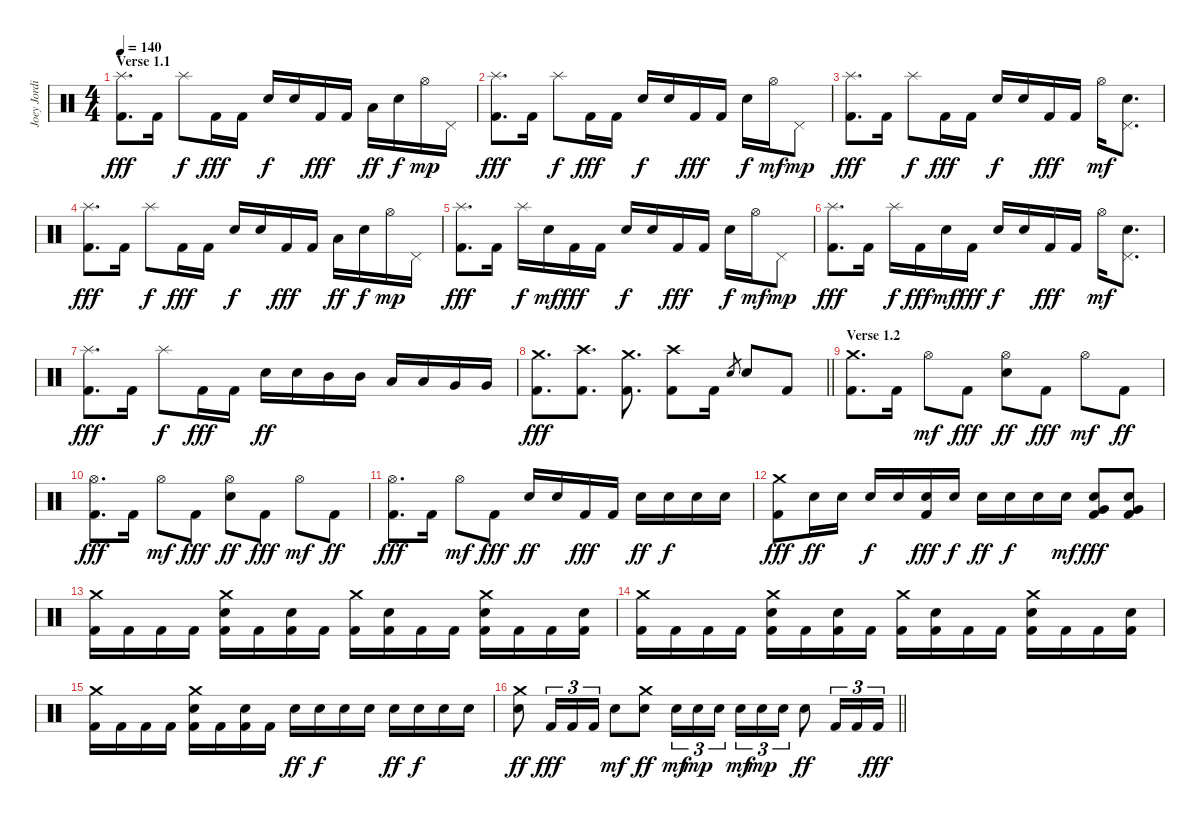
\track ("Joey Jordison" "Joey Jordi") {instrument percussion}
\staff {score}
\articulation defaults
\ts (4 4)
\section ("" "Verse 1.1")
\tempo 140
\clef neutral
\ks c
("Splash (hit)" "Kick (hit) 2").8{d dy fff} "Kick (hit) 2".16 "Splash (hit)".8{dy f} "Kick (hit) 2".16{dy fff} "Kick (hit) 2".16 "Electric Snare (hit)".16{dy f} "Electric Snare (hit)".16 "Kick (hit) 2".16{dy fff} "Kick (hit) 2".16 "Low Tom (hit)".16{dy ff} "Electric Snare (hit)".16{dy f} "Hi-Hat (open)".16{dy mp} "Pedal Hi-Hat (hit)".16 |
("Splash (hit)" "Kick (hit) 2").8{d dy fff} "Kick (hit) 2".16 "Splash (hit)".8{dy f} "Kick (hit) 2".16{dy fff} "Kick (hit) 2".16 "Electric Snare (hit)".16{dy f} "Electric Snare (hit)".16 "Kick (hit) 2".16{dy fff} "Kick (hit) 2".16 "Electric Snare (hit)".16{dy f} "Hi-Hat (open)".16{dy mf} "Pedal Hi-Hat (hit)".8{dy mp} |
("Splash (hit)" "Kick (hit) 2").8{d dy fff} "Kick (hit) 2".16 "Splash (hit)".8{dy f} "Kick (hit) 2".16{dy fff} "Kick (hit) 2".16 "Electric Snare (hit)".16{dy f} "Electric Snare (hit)".16 "Kick (hit) 2".16{dy fff} "Kick (hit) 2".16 "Hi-Hat (open)".16{dy mf} ("Electric Snare (hit)" "Pedal Hi-Hat (hit)").8{d} |
("Splash (hit)" "Kick (hit) 2").8{d dy fff} "Kick (hit) 2".16 "Splash (hit)".8{dy f} "Kick (hit) 2".16{dy fff} "Kick (hit) 2".16 "Electric Snare (hit)".16{dy f} "Electric Snare (hit)".16 "Kick (hit) 2".16{dy fff} "Kick (hit) 2".16 "Low Tom (hit)".16{dy ff} "Electric Snare (hit)".16{dy f} "Hi-Hat (open)".16{dy mp} "Pedal Hi-Hat (hit)".16 |
("Splash (hit)" "Kick (hit) 2").8{d dy fff} "Kick (hit) 2".16 "Splash (hit)".16{dy f} "Electric Snare (hit)".16{dy mf} "Kick (hit) 2".16{dy fff} "Kick (hit) 2".16 "Electric Snare (hit)".16{dy f} "Electric Snare (hit)".16 "Kick (hit) 2".16{dy fff} "Kick (hit) 2".16 "Electric Snare (hit)".16{dy f} "Hi-Hat (open)".16{dy mf} "Pedal Hi-Hat (hit)".8{dy mp} |
("Splash (hit)" "Kick (hit) 2").8{d dy fff} "Kick (hit) 2".16 "Splash (hit)".16{dy f} "Kick (hit) 2".16{dy fff} "Electric Snare (hit)".16{dy mf} "Kick (hit) 2".16{dy fff} "Electric Snare (hit)".16{dy f} "Electric Snare (hit)".16 "Kick (hit) 2".16{dy fff} "Kick (hit) 2".16 "Hi-Hat (open)".16{dy mf} ("Electric Snare (hit)" "Pedal Hi-Hat (hit)").8{d} |
("Splash (hit)" "Kick (hit) 2").8{d dy fff} "Kick (hit) 2".16 "Splash (hit)".8{dy f} "Kick (hit) 2".16{dy fff} "Kick (hit) 2".16 "Electric Snare (hit)".16{dy ff} "Electric Snare (hit)".16 "Mid Tom (hit)".16 "Mid Tom (hit)".16 "Low Tom (hit)".16 "Low Tom (hit)".16 "Very Low Tom (hit)".16 "Very Low Tom (hit)".16 |
\barLineRight lightlight
("Crash medium (hit)" "Kick (hit) 2").8{d dy fff} ("Crash high (hit)" "Kick (hit) 2").8{d} ("Crash medium (hit)" "Kick (hit) 2").8{d} ("Crash high (hit)" "Kick (hit) 2").8 "Kick (hit) 2".16 "Electric Snare (hit)".8{gr} "Electric Snare (hit)".8 "Kick (hit) 2".8 |
\section ("" "Verse 1.2")
("Crash medium (hit)" "Kick (hit) 2").8{d} "Kick (hit) 2".16 "Hi-Hat (open)".8{dy mf} "Kick (hit) 2".8{dy fff} ("Hi-Hat (open)" "Electric Snare (hit)").8{dy ff} "Kick (hit) 2".8{dy fff} "Hi-Hat (open)".8{dy mf} "Kick (hit) 2".8{dy ff} |
("Hi-Hat (open)" "Kick (hit) 2").8{d dy fff} "Kick (hit) 2".16 "Hi-Hat (open)".8{dy mf} "Kick (hit) 2".8{dy fff} ("Hi-Hat (open)" "Electric Snare (hit)").8{dy ff} "Kick (hit) 2".8{dy fff} "Hi-Hat (open)".8{dy mf} "Kick (hit) 2".8{dy ff} |
("Hi-Hat (open)" "Kick (hit) 2").8{d dy fff} "Kick (hit) 2".16 "Hi-Hat (open)".8{dy mf} "Kick (hit) 2".8{dy fff} "Electric Snare (hit)".16{dy ff} "Electric Snare (hit)".16 "Kick (hit) 2".16{dy fff} "Kick (hit) 2".16 "Electric Snare (hit)".16{dy ff} "Electric Snare (hit)".16{dy f} "Electric Snare (hit)".16 "Electric Snare (hit)".16 |
("Crash medium (hit)" "Kick (hit) 2").8{dy fff} "Electric Snare (hit)".16{dy ff} "Electric Snare (hit)".16 "Electric Snare (hit)".16{dy f} "Electric Snare (hit)".16 ("Electric Snare (hit)" "Kick (hit) 2").16{dy fff} "Electric Snare (hit)".16{dy f} "Electric Snare (hit)".16{dy ff} "Electric Snare (hit)".16{dy f} "Electric Snare (hit)".16 "Electric Snare (hit)".16{dy mf} ("Electric Snare (hit)" "Very Low Tom (hit)" "Kick (hit) 2").8{dy fff} ("Electric Snare (hit)" "Very Low Tom (hit)" "Kick (hit) 2").8 |
("Crash medium (hit)" "Kick (hit) 2").16 "Kick (hit) 2".16 "Kick (hit) 2".16 "Kick (hit) 2".16 ("Crash medium (hit)" "Electric Snare (hit)" "Kick (hit) 2").16 "Kick (hit) 2".16 ("Electric Snare (hit)" "Kick (hit) 2").16 "Kick (hit) 2".16 ("Crash medium (hit)" "Kick (hit) 2").16 ("Electric Snare (hit)" "Kick (hit) 2").16 "Kick (hit) 2".16 "Kick (hit) 2".16 ("Crash medium (hit)" "Electric Snare (hit)" "Kick (hit) 2").16 "Kick (hit) 2".16 "Kick (hit) 2".16 ("Electric Snare (hit)" "Kick (hit) 2").16 |
("Crash medium (hit)" "Kick (hit) 2").16 "Kick (hit) 2".16 "Kick (hit) 2".16 "Kick (hit) 2".16 ("Crash medium (hit)" "Electric Snare (hit)" "Kick (hit) 2").16 "Kick (hit) 2".16 ("Electric Snare (hit)" "Kick (hit) 2").16 "Kick (hit) 2".16 ("Crash medium (hit)" "Kick (hit) 2").16 ("Electric Snare (hit)" "Kick (hit) 2").16 "Kick (hit) 2".16 "Kick (hit) 2".16 ("Crash medium (hit)" "Electric Snare (hit)" "Kick (hit) 2").16 "Kick (hit) 2".16 "Kick (hit) 2".16 ("Electric Snare (hit)" "Kick (hit) 2").16 |
("Crash medium (hit)" "Kick (hit) 2").16 "Kick (hit) 2".16 "Kick (hit) 2".16 "Kick (hit) 2".16 ("Crash medium (hit)" "Electric Snare (hit)" "Kick (hit) 2").16 "Kick (hit) 2".16 ("Electric Snare (hit)" "Kick (hit) 2").16 "Kick (hit) 2".16 "Electric Snare (hit)".16{dy ff} "Electric Snare (hit)".16{dy f} "Electric Snare (hit)".16 "Electric Snare (hit)".16 "Electric Snare (hit)".16{dy ff} "Electric Snare (hit)".16{dy f} "Electric Snare (hit)".16 "Electric Snare (hit)".16 |
\barLineRight lightlight
("Crash medium (hit)" "Electric Snare (hit)").8{dy ff} "Kick (hit) 2".16{tu (3 2) dy fff} "Kick (hit) 2".16{tu (3 2)} "Kick (hit) 2".16{tu (3 2)} "Electric Snare (hit)".8{dy mf} ("Crash medium (hit)" "Electric Snare (hit)").8{dy ff} "Electric Snare (hit)".16{tu (3 2) dy mf} "Electric Snare (hit)".16{tu (3 2) dy mp} "Electric Snare (hit)".16{tu (3 2) beam splitsecondary} "Electric Snare (hit)".16{tu (3 2) dy mf} "Electric Snare (hit)".16{tu (3 2) dy mp} "Electric Snare (hit)".16{tu (3 2)} "Electric Snare (hit)".8{dy ff} "Kick (hit) 2".16{tu (3 2)} "Kick (hit) 2".16{tu (3 2)} "Kick (hit) 2".16{tu (3 2) dy fff}
